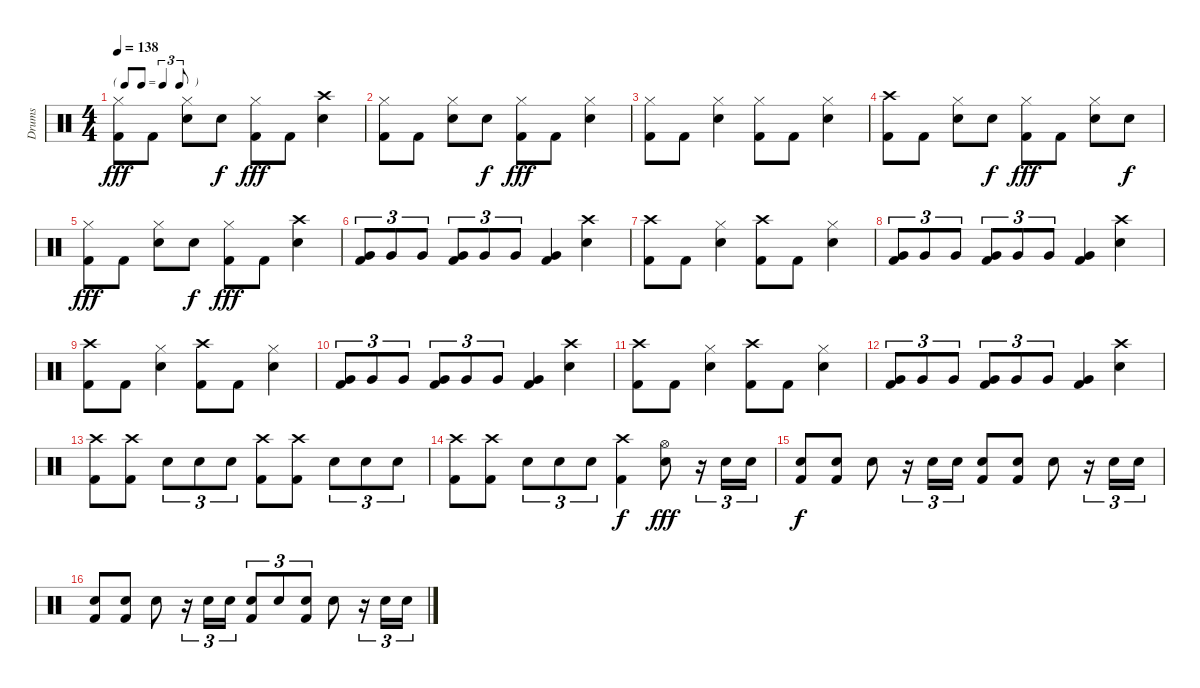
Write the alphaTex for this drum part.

\track ("Drums" "Drums") {instrument percussion}
\staff {score}
\articulation defaults
\ts (4 4)
\tf triplet8th
\tempo 138
\clef neutral
\ks c
("Hi-Hat (closed)" "Kick (hit) 2").8{dy fff} "Kick (hit) 2".8 ("Hi-Hat (closed)" "Snare (hit) 2").8 "Snare (hit) 2".8{dy f} ("Hi-Hat (closed)" "Kick (hit) 2").8{dy fff} "Kick (hit) 2".8 ("Crash high (hit)" "Snare (hit) 2").4 |
("Hi-Hat (closed)" "Kick (hit) 2").8 "Kick (hit) 2".8 ("Hi-Hat (closed)" "Snare (hit) 2").8 "Snare (hit) 2".8{dy f} ("Hi-Hat (closed)" "Kick (hit) 2").8{dy fff} "Kick (hit) 2".8 ("Hi-Hat (closed)" "Snare (hit) 2").4 |
("Hi-Hat (closed)" "Kick (hit) 2").8 "Kick (hit) 2".8 ("Hi-Hat (closed)" "Snare (hit) 2").4 ("Hi-Hat (closed)" "Kick (hit) 2").8 "Kick (hit) 2".8 ("Hi-Hat (closed)" "Snare (hit) 2").4 |
("Crash high (hit)" "Kick (hit) 2").8 "Kick (hit) 2".8 ("Hi-Hat (closed)" "Snare (hit) 2").8 "Snare (hit) 2".8{dy f} ("Hi-Hat (closed)" "Kick (hit) 2").8{dy fff} "Kick (hit) 2".8 ("Hi-Hat (closed)" "Snare (hit) 2").8 "Snare (hit) 2".8{dy f} |
("Hi-Hat (closed)" "Kick (hit) 2").8{dy fff} "Kick (hit) 2".8 ("Hi-Hat (closed)" "Snare (hit) 2").8 "Snare (hit) 2".8{dy f} ("Hi-Hat (closed)" "Kick (hit) 2").8{dy fff} "Kick (hit) 2".8 ("Crash high (hit)" "Snare (hit) 2").4 |
("Very Low Tom (hit)" "Kick (hit) 2").8{tu (3 2)} "Very Low Tom (hit)".8{tu (3 2)} "Very Low Tom (hit)".8{tu (3 2)} ("Very Low Tom (hit)" "Kick (hit) 2").8{tu (3 2)} "Very Low Tom (hit)".8{tu (3 2)} "Very Low Tom (hit)".8{tu (3 2)} ("Very Low Tom (hit)" "Kick (hit) 2").4 ("Crash high (hit)" "Snare (hit) 2").4 |
("Crash high (hit)" "Kick (hit) 2").8 "Kick (hit) 2".8 ("Hi-Hat (closed)" "Snare (hit) 2").4 ("Crash high (hit)" "Kick (hit) 2").8 "Kick (hit) 2".8 ("Hi-Hat (closed)" "Snare (hit) 2").4 |
("Very Low Tom (hit)" "Kick (hit) 2").8{tu (3 2)} "Very Low Tom (hit)".8{tu (3 2)} "Very Low Tom (hit)".8{tu (3 2)} ("Very Low Tom (hit)" "Kick (hit) 2").8{tu (3 2)} "Very Low Tom (hit)".8{tu (3 2)} "Very Low Tom (hit)".8{tu (3 2)} ("Very Low Tom (hit)" "Kick (hit) 2").4 ("Crash high (hit)" "Snare (hit) 2").4 |
("Crash high (hit)" "Kick (hit) 2").8 "Kick (hit) 2".8 ("Hi-Hat (closed)" "Snare (hit) 2").4 ("Crash high (hit)" "Kick (hit) 2").8 "Kick (hit) 2".8 ("Hi-Hat (closed)" "Snare (hit) 2").4 |
("Very Low Tom (hit)" "Kick (hit) 2").8{tu (3 2)} "Very Low Tom (hit)".8{tu (3 2)} "Very Low Tom (hit)".8{tu (3 2)} ("Very Low Tom (hit)" "Kick (hit) 2").8{tu (3 2)} "Very Low Tom (hit)".8{tu (3 2)} "Very Low Tom (hit)".8{tu (3 2)} ("Very Low Tom (hit)" "Kick (hit) 2").4 ("Crash high (hit)" "Snare (hit) 2").4 |
("Crash high (hit)" "Kick (hit) 2").8 "Kick (hit) 2".8 ("Hi-Hat (closed)" "Snare (hit) 2").4 ("Crash high (hit)" "Kick (hit) 2").8 "Kick (hit) 2".8 ("Hi-Hat (closed)" "Snare (hit) 2").4 |
("Very Low Tom (hit)" "Kick (hit) 2").8{tu (3 2)} "Very Low Tom (hit)".8{tu (3 2)} "Very Low Tom (hit)".8{tu (3 2)} ("Very Low Tom (hit)" "Kick (hit) 2").8{tu (3 2)} "Very Low Tom (hit)".8{tu (3 2)} "Very Low Tom (hit)".8{tu (3 2)} ("Very Low Tom (hit)" "Kick (hit) 2").4 ("Crash high (hit)" "Snare (hit) 2").4 |
("Crash high (hit)" "Kick (hit) 2").8 ("Crash high (hit)" "Kick (hit) 2").8 "Snare (hit) 2".8{tu (3 2)} "Snare (hit) 2".8{tu (3 2)} "Snare (hit) 2".8{tu (3 2)} ("Crash high (hit)" "Kick (hit) 2").8 ("Crash high (hit)" "Kick (hit) 2").8 "Snare (hit) 2".8{tu (3 2)} "Snare (hit) 2".8{tu (3 2)} "Snare (hit) 2".8{tu (3 2)} |
("Crash high (hit)" "Kick (hit) 2").8 ("Crash high (hit)" "Kick (hit) 2").8 "Snare (hit) 2".8{tu (3 2)} "Snare (hit) 2".8{tu (3 2)} "Snare (hit) 2".8{tu (3 2)} ("Crash high (hit)" "Kick (hit) 2").4{dy f} ("Hi-Hat (open)" "Snare (hit) 2").8{dy fff} r.16{tu (3 2)} "Snare (hit) 2".16{tu (3 2)} "Snare (hit) 2".16{tu (3 2)} |
("Snare (hit) 2" "Kick (hit) 2").8{dy f} ("Snare (hit) 2" "Kick (hit) 2").8 "Snare (hit) 2".8 r.16{tu (3 2)} "Snare (hit) 2".16{tu (3 2)} "Snare (hit) 2".16{tu (3 2)} ("Snare (hit) 2" "Kick (hit) 2").8 ("Snare (hit) 2" "Kick (hit) 2").8 "Snare (hit) 2".8 r.16{tu (3 2)} "Snare (hit) 2".16{tu (3 2)} "Snare (hit) 2".16{tu (3 2)} |
("Snare (hit) 2" "Kick (hit) 2").8 ("Snare (hit) 2" "Kick (hit) 2").8 "Snare (hit) 2".8 r.16{tu (3 2)} "Snare (hit) 2".16{tu (3 2)} "Snare (hit) 2".16{tu (3 2)} ("Snare (hit) 2" "Kick (hit) 2").8{tu (3 2)} "Snare (hit) 2".8{tu (3 2)} ("Snare (hit) 2" "Kick (hit) 2").8{tu (3 2)} "Snare (hit) 2".8 r.16{tu (3 2)} "Snare (hit) 2".16{tu (3 2)} "Snare (hit) 2".16{tu (3 2)}
